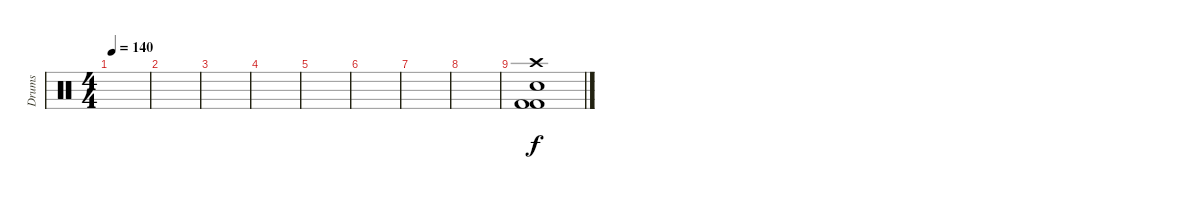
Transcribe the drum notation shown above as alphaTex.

\track ("Drums" "Drums") {instrument percussion}
\staff {score}
\articulation defaults
\ts (4 4)
\tempo 140
\clef neutral
\ks c
|
|
|
|
|
|
|
|
("Crash high (hit)" "Electric Snare (hit)" "Kick (hit) 2" "Kick (hit) 2").1
